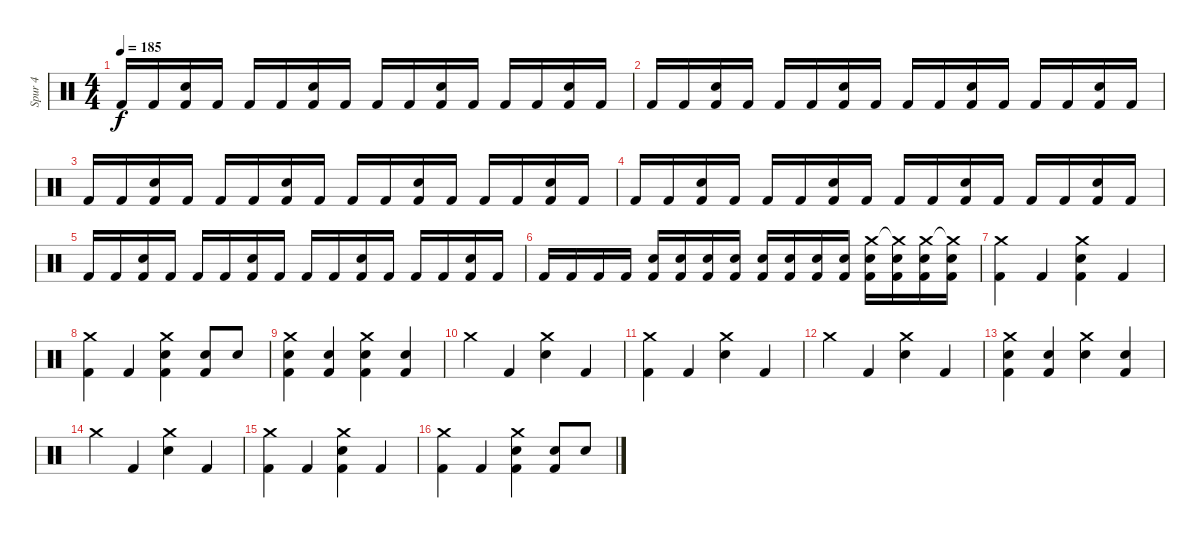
\track ("Spur 4" "Spur 4") {instrument percussion}
\staff {score}
\articulation defaults
\ts (4 4)
\tempo 185
\clef neutral
\ks c "Kick (hit) 2".16{dy f} "Kick (hit) 2".16
("Electric Snare (hit)" "Kick (hit) 2").16 "Kick (hit) 2".16 "Kick (hit) 2".16 "Kick (hit) 2".16 ("Electric Snare (hit)" "Kick (hit) 2").16 "Kick (hit) 2".16 "Kick (hit) 2".16 "Kick (hit) 2".16 ("Electric Snare (hit)" "Kick (hit) 2").16 "Kick (hit) 2".16 "Kick (hit) 2".16 "Kick (hit) 2".16 ("Electric Snare (hit)" "Kick (hit) 2").16 "Kick (hit) 2".16 |
"Kick (hit) 2".16 "Kick (hit) 2".16 ("Electric Snare (hit)" "Kick (hit) 2").16 "Kick (hit) 2".16 "Kick (hit) 2".16 "Kick (hit) 2".16 ("Electric Snare (hit)" "Kick (hit) 2").16 "Kick (hit) 2".16 "Kick (hit) 2".16 "Kick (hit) 2".16 ("Electric Snare (hit)" "Kick (hit) 2").16 "Kick (hit) 2".16 "Kick (hit) 2".16 "Kick (hit) 2".16 ("Electric Snare (hit)" "Kick (hit) 2").16 "Kick (hit) 2".16 |
"Kick (hit) 2".16 "Kick (hit) 2".16 ("Electric Snare (hit)" "Kick (hit) 2").16 "Kick (hit) 2".16 "Kick (hit) 2".16 "Kick (hit) 2".16 ("Electric Snare (hit)" "Kick (hit) 2").16 "Kick (hit) 2".16 "Kick (hit) 2".16 "Kick (hit) 2".16 ("Electric Snare (hit)" "Kick (hit) 2").16 "Kick (hit) 2".16 "Kick (hit) 2".16 "Kick (hit) 2".16 ("Electric Snare (hit)" "Kick (hit) 2").16 "Kick (hit) 2".16 |
"Kick (hit) 2".16 "Kick (hit) 2".16 ("Electric Snare (hit)" "Kick (hit) 2").16 "Kick (hit) 2".16 "Kick (hit) 2".16 "Kick (hit) 2".16 ("Electric Snare (hit)" "Kick (hit) 2").16 "Kick (hit) 2".16 "Kick (hit) 2".16 "Kick (hit) 2".16 ("Electric Snare (hit)" "Kick (hit) 2").16 "Kick (hit) 2".16 "Kick (hit) 2".16 "Kick (hit) 2".16 ("Electric Snare (hit)" "Kick (hit) 2").16 "Kick (hit) 2".16 |
"Kick (hit) 2".16 "Kick (hit) 2".16 ("Electric Snare (hit)" "Kick (hit) 2").16 "Kick (hit) 2".16 "Kick (hit) 2".16 "Kick (hit) 2".16 ("Electric Snare (hit)" "Kick (hit) 2").16 "Kick (hit) 2".16 "Kick (hit) 2".16 "Kick (hit) 2".16 ("Electric Snare (hit)" "Kick (hit) 2").16 "Kick (hit) 2".16 "Kick (hit) 2".16 "Kick (hit) 2".16 ("Electric Snare (hit)" "Kick (hit) 2").16 "Kick (hit) 2".16 |
"Kick (hit) 2".16 "Kick (hit) 2".16 "Kick (hit) 2".16 "Kick (hit) 2".16 ("Electric Snare (hit)" "Kick (hit) 2").16 ("Electric Snare (hit)" "Kick (hit) 2").16 ("Electric Snare (hit)" "Kick (hit) 2").16 ("Electric Snare (hit)" "Kick (hit) 2").16 ("Electric Snare (hit)" "Kick (hit) 2").16 ("Electric Snare (hit)" "Kick (hit) 2").16 ("Electric Snare (hit)" "Kick (hit) 2").16 ("Electric Snare (hit)" "Kick (hit) 2").16 ("Crash medium (hit)" "Electric Snare (hit)" "Kick (hit) 2").16 ("Crash medium (hit)"{t} "Electric Snare (hit)" "Kick (hit) 2").16 ("Crash medium (hit)" "Electric Snare (hit)" "Kick (hit) 2").16 ("Crash medium (hit)"{t} "Electric Snare (hit)" "Kick (hit) 2").16 |
("Crash medium (hit)" "Kick (hit) 2").4 "Kick (hit) 2".4 ("Crash medium (hit)" "Electric Snare (hit)" "Kick (hit) 2").4 "Kick (hit) 2".4 |
("Crash medium (hit)" "Kick (hit) 2").4 "Kick (hit) 2".4 ("Crash medium (hit)" "Electric Snare (hit)" "Kick (hit) 2").4 ("Electric Snare (hit)" "Kick (hit) 2").8 "Electric Snare (hit)".8 |
("Crash medium (hit)" "Electric Snare (hit)" "Kick (hit) 2").4 ("Electric Snare (hit)" "Kick (hit) 2").4 ("Crash medium (hit)" "Electric Snare (hit)" "Kick (hit) 2").4 ("Electric Snare (hit)" "Kick (hit) 2").4 |
"Crash medium (hit)".4 "Kick (hit) 2".4 ("Crash medium (hit)" "Electric Snare (hit)").4 "Kick (hit) 2".4 |
("Crash medium (hit)" "Kick (hit) 2").4 "Kick (hit) 2".4 ("Crash medium (hit)" "Electric Snare (hit)").4 "Kick (hit) 2".4 |
"Crash medium (hit)".4 "Kick (hit) 2".4 ("Crash medium (hit)" "Electric Snare (hit)").4 "Kick (hit) 2".4 |
("Crash medium (hit)" "Electric Snare (hit)" "Kick (hit) 2").4 ("Electric Snare (hit)" "Kick (hit) 2").4 ("Crash medium (hit)" "Electric Snare (hit)").4 ("Electric Snare (hit)" "Kick (hit) 2").4 |
"Crash medium (hit)".4 "Kick (hit) 2".4 ("Crash medium (hit)" "Electric Snare (hit)").4 "Kick (hit) 2".4 |
("Crash medium (hit)" "Kick (hit) 2").4 "Kick (hit) 2".4 ("Crash medium (hit)" "Electric Snare (hit)" "Kick (hit) 2").4 "Kick (hit) 2".4 |
("Crash medium (hit)" "Kick (hit) 2").4 "Kick (hit) 2".4 ("Crash medium (hit)" "Electric Snare (hit)" "Kick (hit) 2").4 ("Electric Snare (hit)" "Kick (hit) 2").8 "Electric Snare (hit)".8
